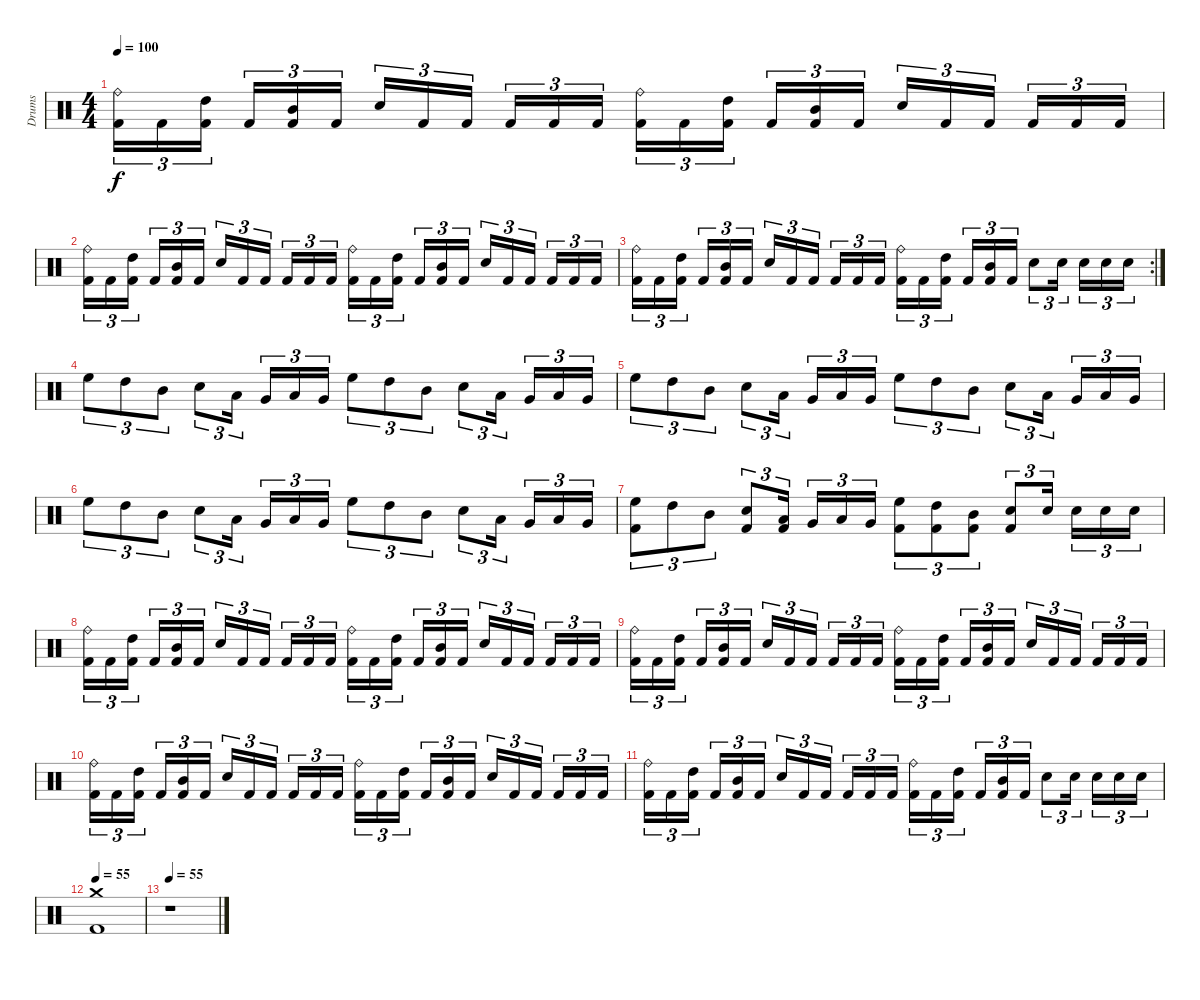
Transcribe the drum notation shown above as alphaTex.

\track ("Drums" "Drums") {instrument percussion}
\staff {score}
\articulation defaults
\ts (4 4)
\tempo 100
\clef neutral
\ks c
("Ride (bell)" "Kick (hit) 2").16{tu (3 2) dy f} "Kick (hit) 2".16{tu (3 2)} ("High Tom (hit)" "Kick (hit) 2").16{tu (3 2)} "Kick (hit) 2".16{tu (3 2)} ("Mid Tom (hit)" "Kick (hit) 2").16{tu (3 2)} "Kick (hit) 2".16{tu (3 2)} "Electric Snare (hit)".16{tu (3 2)} "Kick (hit) 2".16{tu (3 2)} "Kick (hit) 2".16{tu (3 2)} "Kick (hit) 2".16{tu (3 2)} "Kick (hit) 2".16{tu (3 2)} "Kick (hit) 2".16{tu (3 2)} ("Ride (bell)" "Kick (hit) 2").16{tu (3 2)} "Kick (hit) 2".16{tu (3 2)} ("High Tom (hit)" "Kick (hit) 2").16{tu (3 2)} "Kick (hit) 2".16{tu (3 2)} ("Mid Tom (hit)" "Kick (hit) 2").16{tu (3 2)} "Kick (hit) 2".16{tu (3 2)} "Electric Snare (hit)".16{tu (3 2)} "Kick (hit) 2".16{tu (3 2)} "Kick (hit) 2".16{tu (3 2)} "Kick (hit) 2".16{tu (3 2)} "Kick (hit) 2".16{tu (3 2)} "Kick (hit) 2".16{tu (3 2)} |
("Ride (bell)" "Kick (hit) 2").16{tu (3 2)} "Kick (hit) 2".16{tu (3 2)} ("High Tom (hit)" "Kick (hit) 2").16{tu (3 2)} "Kick (hit) 2".16{tu (3 2)} ("Mid Tom (hit)" "Kick (hit) 2").16{tu (3 2)} "Kick (hit) 2".16{tu (3 2)} "Electric Snare (hit)".16{tu (3 2)} "Kick (hit) 2".16{tu (3 2)} "Kick (hit) 2".16{tu (3 2)} "Kick (hit) 2".16{tu (3 2)} "Kick (hit) 2".16{tu (3 2)} "Kick (hit) 2".16{tu (3 2)} ("Ride (bell)" "Kick (hit) 2").16{tu (3 2)} "Kick (hit) 2".16{tu (3 2)} ("High Tom (hit)" "Kick (hit) 2").16{tu (3 2)} "Kick (hit) 2".16{tu (3 2)} ("Mid Tom (hit)" "Kick (hit) 2").16{tu (3 2)} "Kick (hit) 2".16{tu (3 2)} "Electric Snare (hit)".16{tu (3 2)} "Kick (hit) 2".16{tu (3 2)} "Kick (hit) 2".16{tu (3 2)} "Kick (hit) 2".16{tu (3 2)} "Kick (hit) 2".16{tu (3 2)} "Kick (hit) 2".16{tu (3 2)} |
\rc 2
("Ride (bell)" "Kick (hit) 2").16{tu (3 2)} "Kick (hit) 2".16{tu (3 2)} ("High Tom (hit)" "Kick (hit) 2").16{tu (3 2)} "Kick (hit) 2".16{tu (3 2)} ("Mid Tom (hit)" "Kick (hit) 2").16{tu (3 2)} "Kick (hit) 2".16{tu (3 2)} "Electric Snare (hit)".16{tu (3 2)} "Kick (hit) 2".16{tu (3 2)} "Kick (hit) 2".16{tu (3 2)} "Kick (hit) 2".16{tu (3 2)} "Kick (hit) 2".16{tu (3 2)} "Kick (hit) 2".16{tu (3 2)} ("Ride (bell)" "Kick (hit) 2").16{tu (3 2)} "Kick (hit) 2".16{tu (3 2)} ("High Tom (hit)" "Kick (hit) 2").16{tu (3 2)} "Kick (hit) 2".16{tu (3 2)} ("Mid Tom (hit)" "Kick (hit) 2").16{tu (3 2)} "Kick (hit) 2".16{tu (3 2)} "Electric Snare (hit)".8{tu (3 2)} "Electric Snare (hit)".16{tu (3 2)} "Electric Snare (hit)".16{tu (3 2)} "Electric Snare (hit)".16{tu (3 2)} "Electric Snare (hit)".16{tu (3 2)} |
"High Floor Tom (hit)".8{tu (3 2)} "High Tom (hit)".8{tu (3 2)} "Mid Tom (hit)".8{tu (3 2)} "Electric Snare (hit)".8{tu (3 2)} "Low Tom (hit)".16{tu (3 2)} "Very Low Tom (hit)".16{tu (3 2)} "Low Tom (hit)".16{tu (3 2)} "Very Low Tom (hit)".16{tu (3 2)} "High Floor Tom (hit)".8{tu (3 2)} "High Tom (hit)".8{tu (3 2)} "Mid Tom (hit)".8{tu (3 2)} "Electric Snare (hit)".8{tu (3 2)} "Low Tom (hit)".16{tu (3 2)} "Very Low Tom (hit)".16{tu (3 2)} "Low Tom (hit)".16{tu (3 2)} "Very Low Tom (hit)".16{tu (3 2)} |
"High Floor Tom (hit)".8{tu (3 2)} "High Tom (hit)".8{tu (3 2)} "Mid Tom (hit)".8{tu (3 2)} "Electric Snare (hit)".8{tu (3 2)} "Low Tom (hit)".16{tu (3 2)} "Very Low Tom (hit)".16{tu (3 2)} "Low Tom (hit)".16{tu (3 2)} "Very Low Tom (hit)".16{tu (3 2)} "High Floor Tom (hit)".8{tu (3 2)} "High Tom (hit)".8{tu (3 2)} "Mid Tom (hit)".8{tu (3 2)} "Electric Snare (hit)".8{tu (3 2)} "Low Tom (hit)".16{tu (3 2)} "Very Low Tom (hit)".16{tu (3 2)} "Low Tom (hit)".16{tu (3 2)} "Very Low Tom (hit)".16{tu (3 2)} |
"High Floor Tom (hit)".8{tu (3 2)} "High Tom (hit)".8{tu (3 2)} "Mid Tom (hit)".8{tu (3 2)} "Electric Snare (hit)".8{tu (3 2)} "Low Tom (hit)".16{tu (3 2)} "Very Low Tom (hit)".16{tu (3 2)} "Low Tom (hit)".16{tu (3 2)} "Very Low Tom (hit)".16{tu (3 2)} "High Floor Tom (hit)".8{tu (3 2)} "High Tom (hit)".8{tu (3 2)} "Mid Tom (hit)".8{tu (3 2)} "Electric Snare (hit)".8{tu (3 2)} "Low Tom (hit)".16{tu (3 2)} "Very Low Tom (hit)".16{tu (3 2)} "Low Tom (hit)".16{tu (3 2)} "Very Low Tom (hit)".16{tu (3 2)} |
("Kick (hit) 2" "High Floor Tom (hit)").8{tu (3 2)} "High Tom (hit)".8{tu (3 2)} "Mid Tom (hit)".8{tu (3 2)} ("Kick (hit) 2" "Electric Snare (hit)").8{tu (3 2)} ("Kick (hit) 2" "Low Tom (hit)").16{tu (3 2)} "Very Low Tom (hit)".16{tu (3 2)} "Low Tom (hit)".16{tu (3 2)} "Very Low Tom (hit)".16{tu (3 2)} ("Kick (hit) 2" "High Floor Tom (hit)").8{tu (3 2)} ("Kick (hit) 2" "High Tom (hit)").8{tu (3 2)} ("Kick (hit) 2" "Mid Tom (hit)").8{tu (3 2)} ("Kick (hit) 2" "Electric Snare (hit)").8{tu (3 2)} "Electric Snare (hit)".16{tu (3 2)} "Electric Snare (hit)".16{tu (3 2)} "Electric Snare (hit)".16{tu (3 2)} "Electric Snare (hit)".16{tu (3 2)} |
("Ride (bell)" "Kick (hit) 2").16{tu (3 2)} "Kick (hit) 2".16{tu (3 2)} ("High Tom (hit)" "Kick (hit) 2").16{tu (3 2)} "Kick (hit) 2".16{tu (3 2)} ("Mid Tom (hit)" "Kick (hit) 2").16{tu (3 2)} "Kick (hit) 2".16{tu (3 2)} "Electric Snare (hit)".16{tu (3 2)} "Kick (hit) 2".16{tu (3 2)} "Kick (hit) 2".16{tu (3 2)} "Kick (hit) 2".16{tu (3 2)} "Kick (hit) 2".16{tu (3 2)} "Kick (hit) 2".16{tu (3 2)} ("Ride (bell)" "Kick (hit) 2").16{tu (3 2)} "Kick (hit) 2".16{tu (3 2)} ("High Tom (hit)" "Kick (hit) 2").16{tu (3 2)} "Kick (hit) 2".16{tu (3 2)} ("Mid Tom (hit)" "Kick (hit) 2").16{tu (3 2)} "Kick (hit) 2".16{tu (3 2)} "Electric Snare (hit)".16{tu (3 2)} "Kick (hit) 2".16{tu (3 2)} "Kick (hit) 2".16{tu (3 2)} "Kick (hit) 2".16{tu (3 2)} "Kick (hit) 2".16{tu (3 2)} "Kick (hit) 2".16{tu (3 2)} |
("Ride (bell)" "Kick (hit) 2").16{tu (3 2)} "Kick (hit) 2".16{tu (3 2)} ("High Tom (hit)" "Kick (hit) 2").16{tu (3 2)} "Kick (hit) 2".16{tu (3 2)} ("Mid Tom (hit)" "Kick (hit) 2").16{tu (3 2)} "Kick (hit) 2".16{tu (3 2)} "Electric Snare (hit)".16{tu (3 2)} "Kick (hit) 2".16{tu (3 2)} "Kick (hit) 2".16{tu (3 2)} "Kick (hit) 2".16{tu (3 2)} "Kick (hit) 2".16{tu (3 2)} "Kick (hit) 2".16{tu (3 2)} ("Ride (bell)" "Kick (hit) 2").16{tu (3 2)} "Kick (hit) 2".16{tu (3 2)} ("High Tom (hit)" "Kick (hit) 2").16{tu (3 2)} "Kick (hit) 2".16{tu (3 2)} ("Mid Tom (hit)" "Kick (hit) 2").16{tu (3 2)} "Kick (hit) 2".16{tu (3 2)} "Electric Snare (hit)".16{tu (3 2)} "Kick (hit) 2".16{tu (3 2)} "Kick (hit) 2".16{tu (3 2)} "Kick (hit) 2".16{tu (3 2)} "Kick (hit) 2".16{tu (3 2)} "Kick (hit) 2".16{tu (3 2)} |
("Ride (bell)" "Kick (hit) 2").16{tu (3 2)} "Kick (hit) 2".16{tu (3 2)} ("High Tom (hit)" "Kick (hit) 2").16{tu (3 2)} "Kick (hit) 2".16{tu (3 2)} ("Mid Tom (hit)" "Kick (hit) 2").16{tu (3 2)} "Kick (hit) 2".16{tu (3 2)} "Electric Snare (hit)".16{tu (3 2)} "Kick (hit) 2".16{tu (3 2)} "Kick (hit) 2".16{tu (3 2)} "Kick (hit) 2".16{tu (3 2)} "Kick (hit) 2".16{tu (3 2)} "Kick (hit) 2".16{tu (3 2)} ("Ride (bell)" "Kick (hit) 2").16{tu (3 2)} "Kick (hit) 2".16{tu (3 2)} ("High Tom (hit)" "Kick (hit) 2").16{tu (3 2)} "Kick (hit) 2".16{tu (3 2)} ("Mid Tom (hit)" "Kick (hit) 2").16{tu (3 2)} "Kick (hit) 2".16{tu (3 2)} "Electric Snare (hit)".16{tu (3 2)} "Kick (hit) 2".16{tu (3 2)} "Kick (hit) 2".16{tu (3 2)} "Kick (hit) 2".16{tu (3 2)} "Kick (hit) 2".16{tu (3 2)} "Kick (hit) 2".16{tu (3 2)} |
("Ride (bell)" "Kick (hit) 2").16{tu (3 2)} "Kick (hit) 2".16{tu (3 2)} ("High Tom (hit)" "Kick (hit) 2").16{tu (3 2)} "Kick (hit) 2".16{tu (3 2)} ("Mid Tom (hit)" "Kick (hit) 2").16{tu (3 2)} "Kick (hit) 2".16{tu (3 2)} "Electric Snare (hit)".16{tu (3 2)} "Kick (hit) 2".16{tu (3 2)} "Kick (hit) 2".16{tu (3 2)} "Kick (hit) 2".16{tu (3 2)} "Kick (hit) 2".16{tu (3 2)} "Kick (hit) 2".16{tu (3 2)} ("Ride (bell)" "Kick (hit) 2").16{tu (3 2)} "Kick (hit) 2".16{tu (3 2)} ("High Tom (hit)" "Kick (hit) 2").16{tu (3 2)} "Kick (hit) 2".16{tu (3 2)} ("Mid Tom (hit)" "Kick (hit) 2").16{tu (3 2)} "Kick (hit) 2".16{tu (3 2)} "Electric Snare (hit)".8{tu (3 2)} "Electric Snare (hit)".16{tu (3 2)} "Electric Snare (hit)".16{tu (3 2)} "Electric Snare (hit)".16{tu (3 2)} "Electric Snare (hit)".16{tu (3 2)} |
\tempo 55
("Crash medium (hit)" "Kick (hit) 2").1{volume 0} |
\tempo 55
r.1
